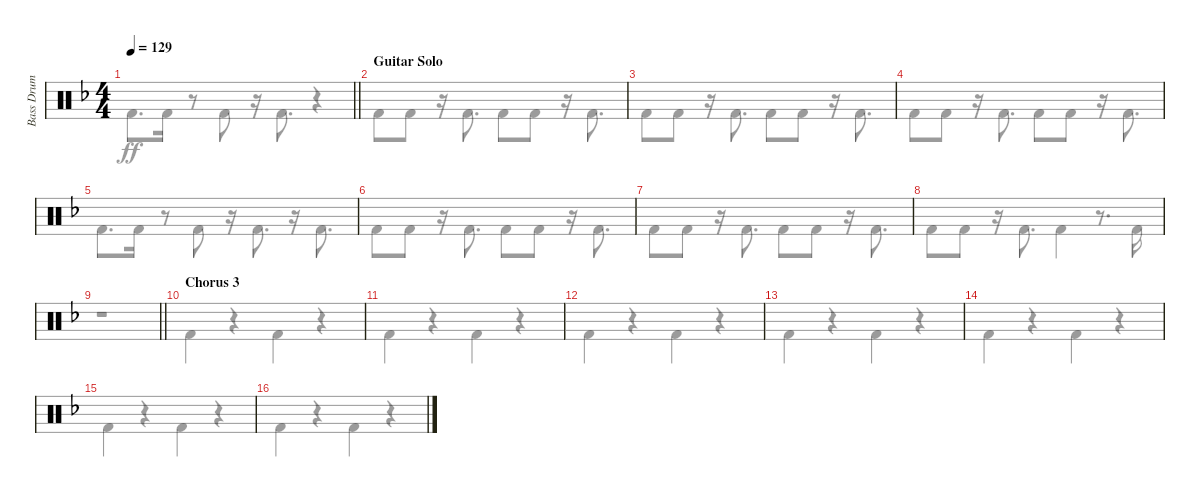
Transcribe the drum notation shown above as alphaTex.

\track ("Bass Drum" "Bass Drum") {instrument percussion}
\staff {score}
\articulation defaults
\voice
\ts (4 4)
\tempo 129
\clef neutral
\barLineRight lightlight
\ks dminor
|
\section ("" "Guitar Solo")
|
|
|
|
|
|
|
\barLineRight lightlight
|
\section ("" "Chorus 3")
|
|
|
|
|
|
\voice
\clef neutral
\barLineRight lightlight
\ks dminor "Kick (hit) 2".8{d dy ff} "Kick (hit) 2".16
r.8 "Kick (hit) 2".8 r.16 "Kick (hit) 2".8{d} r.4 |
"Kick (hit) 2".8 "Kick (hit) 2".8 r.16 "Kick (hit) 2".8{d} "Kick (hit) 2".8 "Kick (hit) 2".8 r.16 "Kick (hit) 2".8{d} |
"Kick (hit) 2".8 "Kick (hit) 2".8 r.16 "Kick (hit) 2".8{d} "Kick (hit) 2".8 "Kick (hit) 2".8 r.16 "Kick (hit) 2".8{d} |
"Kick (hit) 2".8 "Kick (hit) 2".8 r.16 "Kick (hit) 2".8{d} "Kick (hit) 2".8 "Kick (hit) 2".8 r.16 "Kick (hit) 2".8{d} |
"Kick (hit) 2".8{d} "Kick (hit) 2".16 r.8 "Kick (hit) 2".8 r.16 "Kick (hit) 2".8{d} r.16 "Kick (hit) 2".8{d} |
"Kick (hit) 2".8 "Kick (hit) 2".8 r.16 "Kick (hit) 2".8{d} "Kick (hit) 2".8 "Kick (hit) 2".8 r.16 "Kick (hit) 2".8{d} |
"Kick (hit) 2".8 "Kick (hit) 2".8 r.16 "Kick (hit) 2".8{d} "Kick (hit) 2".8 "Kick (hit) 2".8 r.16 "Kick (hit) 2".8{d} |
"Kick (hit) 2".8 "Kick (hit) 2".8 r.16 "Kick (hit) 2".8{d} "Kick (hit) 2".4 r.8{d} "Kick (hit) 2".16 |
\barLineRight lightlight
r.1 |
"Kick (hit) 2".4 r.4 "Kick (hit) 2".4 r.4 |
"Kick (hit) 2".4 r.4 "Kick (hit) 2".4 r.4 |
"Kick (hit) 2".4 r.4 "Kick (hit) 2".4 r.4 |
"Kick (hit) 2".4 r.4 "Kick (hit) 2".4 r.4 |
"Kick (hit) 2".4 r.4 "Kick (hit) 2".4 r.4 |
"Kick (hit) 2".4 r.4 "Kick (hit) 2".4 r.4 |
"Kick (hit) 2".4 r.4 "Kick (hit) 2".4 r.4
